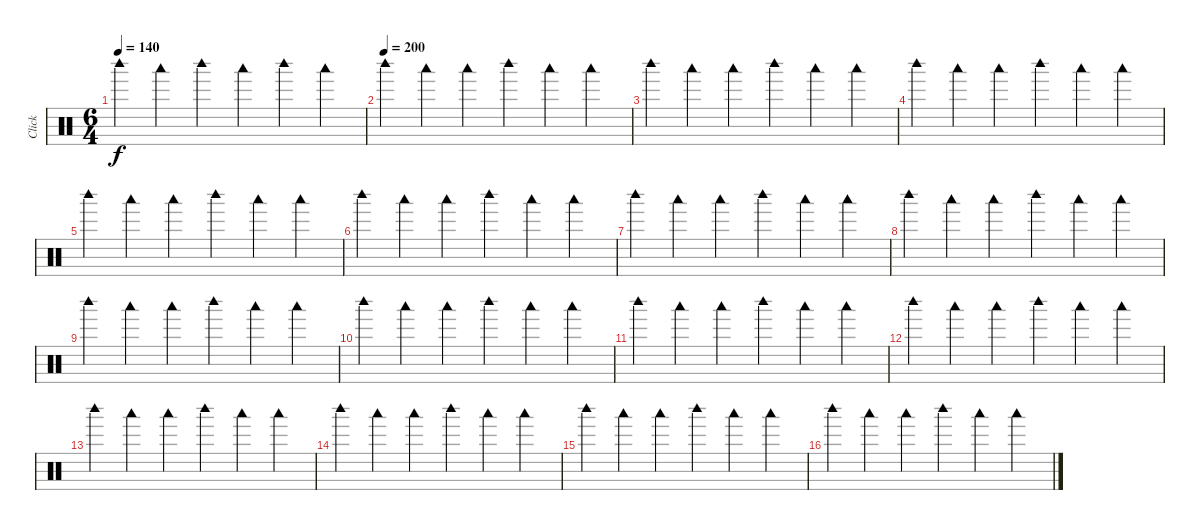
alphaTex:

\track ("Click" "Click") {mute instrument percussion}
\staff {score}
\articulation defaults
\ts (6 4)
\tempo 140
\clef neutral
\ks c "Woodblock high (hit)".4{dy f} "Woodblock low (hit)".4 "Woodblock high (hit)".4 "Woodblock low (hit)".4 "Woodblock high (hit)".4 "Woodblock low (hit)".4
|
\tempo (200)
"Woodblock high (hit)".4 "Woodblock low (hit)".4 "Woodblock low (hit)".4 "Woodblock high (hit)".4 "Woodblock low (hit)".4 "Woodblock low (hit)".4 |
"Woodblock high (hit)".4 "Woodblock low (hit)".4 "Woodblock low (hit)".4 "Woodblock high (hit)".4 "Woodblock low (hit)".4 "Woodblock low (hit)".4 |
"Woodblock high (hit)".4 "Woodblock low (hit)".4 "Woodblock low (hit)".4 "Woodblock high (hit)".4 "Woodblock low (hit)".4 "Woodblock low (hit)".4 |
"Woodblock high (hit)".4 "Woodblock low (hit)".4 "Woodblock low (hit)".4 "Woodblock high (hit)".4 "Woodblock low (hit)".4 "Woodblock low (hit)".4 |
"Woodblock high (hit)".4 "Woodblock low (hit)".4 "Woodblock low (hit)".4 "Woodblock high (hit)".4 "Woodblock low (hit)".4 "Woodblock low (hit)".4 |
"Woodblock high (hit)".4 "Woodblock low (hit)".4 "Woodblock low (hit)".4 "Woodblock high (hit)".4 "Woodblock low (hit)".4 "Woodblock low (hit)".4 |
"Woodblock high (hit)".4 "Woodblock low (hit)".4 "Woodblock low (hit)".4 "Woodblock high (hit)".4 "Woodblock low (hit)".4 "Woodblock low (hit)".4 |
"Woodblock high (hit)".4 "Woodblock low (hit)".4 "Woodblock low (hit)".4 "Woodblock high (hit)".4 "Woodblock low (hit)".4 "Woodblock low (hit)".4 |
"Woodblock high (hit)".4 "Woodblock low (hit)".4 "Woodblock low (hit)".4 "Woodblock high (hit)".4 "Woodblock low (hit)".4 "Woodblock low (hit)".4 |
"Woodblock high (hit)".4 "Woodblock low (hit)".4 "Woodblock low (hit)".4 "Woodblock high (hit)".4 "Woodblock low (hit)".4 "Woodblock low (hit)".4 |
"Woodblock high (hit)".4 "Woodblock low (hit)".4 "Woodblock low (hit)".4 "Woodblock high (hit)".4 "Woodblock low (hit)".4 "Woodblock low (hit)".4 |
"Woodblock high (hit)".4 "Woodblock low (hit)".4 "Woodblock low (hit)".4 "Woodblock high (hit)".4 "Woodblock low (hit)".4 "Woodblock low (hit)".4 |
"Woodblock high (hit)".4 "Woodblock low (hit)".4 "Woodblock low (hit)".4 "Woodblock high (hit)".4 "Woodblock low (hit)".4 "Woodblock low (hit)".4 |
"Woodblock high (hit)".4 "Woodblock low (hit)".4 "Woodblock low (hit)".4 "Woodblock high (hit)".4 "Woodblock low (hit)".4 "Woodblock low (hit)".4 |
"Woodblock high (hit)".4 "Woodblock low (hit)".4 "Woodblock low (hit)".4 "Woodblock high (hit)".4 "Woodblock low (hit)".4 "Woodblock low (hit)".4
